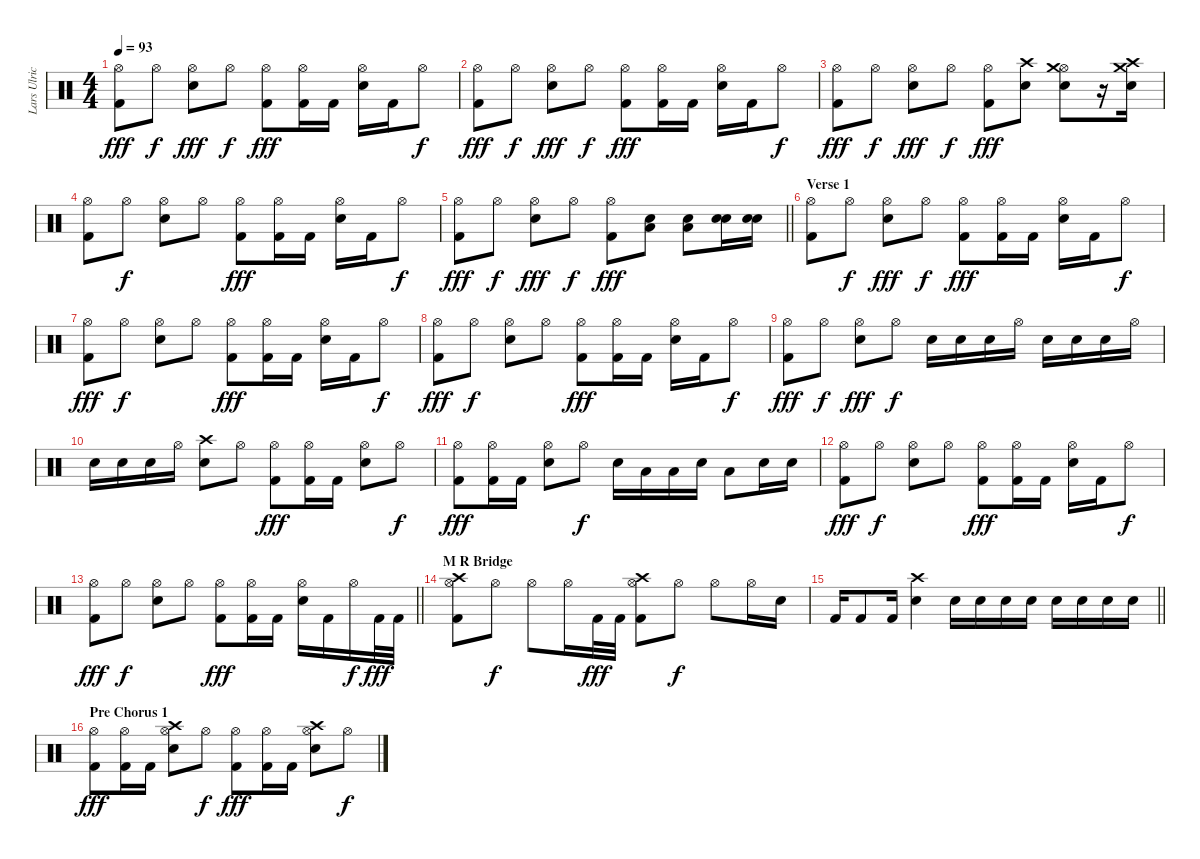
\track ("Lars Ulrich" "Lars Ulric") {instrument percussion}
\staff {score}
\articulation defaults
\ts (4 4)
\tempo 93
\clef neutral
\ks c
("Hi-Hat (open)" "Kick (hit) 2").8{dy fff} "Hi-Hat (open)".8{dy f} ("Hi-Hat (open)" "Snare (hit) 2").8{dy fff} "Hi-Hat (open)".8{dy f} ("Hi-Hat (open)" "Kick (hit) 2").8{dy fff} ("Hi-Hat (open)" "Kick (hit) 2").16 "Kick (hit) 2".16 ("Hi-Hat (open)" "Snare (hit) 2").16 "Kick (hit) 2".16 "Hi-Hat (open)".8{dy f} |
("Hi-Hat (open)" "Kick (hit) 2").8{dy fff} "Hi-Hat (open)".8{dy f} ("Hi-Hat (open)" "Snare (hit) 2").8{dy fff} "Hi-Hat (open)".8{dy f} ("Hi-Hat (open)" "Kick (hit) 2").8{dy fff} ("Hi-Hat (open)" "Kick (hit) 2").16 "Kick (hit) 2".16 ("Hi-Hat (open)" "Snare (hit) 2").16 "Kick (hit) 2".16 "Hi-Hat (open)".8{dy f} |
("Hi-Hat (open)" "Kick (hit) 2").8{dy fff} "Hi-Hat (open)".8{dy f} ("Hi-Hat (open)" "Snare (hit) 2").8{dy fff} "Hi-Hat (open)".8{dy f} ("Hi-Hat (open)" "Kick (hit) 2").8{dy fff} ("Crash high (hit)" "Electric Snare (hit)").8 ("Hi-Hat (open)" "Crash medium (hit)" "Electric Snare (hit)").8 r.16 ("Crash medium (hit)" "Crash high (hit)" "Electric Snare (hit)").16 |
("Hi-Hat (open)" "Kick (hit) 2").8 "Hi-Hat (open)".8{dy f} ("Hi-Hat (open)" "Snare (hit) 2").8 "Hi-Hat (open)".8 ("Hi-Hat (open)" "Kick (hit) 2").8{dy fff} ("Hi-Hat (open)" "Kick (hit) 2").16 "Kick (hit) 2".16 ("Hi-Hat (open)" "Snare (hit) 2").16 "Kick (hit) 2".16 "Hi-Hat (open)".8{dy f} |
\barLineRight lightlight
("Hi-Hat (open)" "Kick (hit) 2").8{dy fff} "Hi-Hat (open)".8{dy f} ("Hi-Hat (open)" "Snare (hit) 2").8{dy fff} "Hi-Hat (open)".8{dy f} ("Hi-Hat (open)" "Kick (hit) 2").8{dy fff} ("Low Floor Tom (hit)" "Electric Snare (hit)").8 ("Low Floor Tom (hit)" "Electric Snare (hit)").8 ("Electric Snare (hit)" "Electric Snare (hit)").16 ("Electric Snare (hit)" "Electric Snare (hit)").16 |
\section ("" "Verse 1")
("Hi-Hat (open)" "Kick (hit) 2").8 "Hi-Hat (open)".8{dy f} ("Hi-Hat (open)" "Snare (hit) 2").8{dy fff} "Hi-Hat (open)".8{dy f} ("Hi-Hat (open)" "Kick (hit) 2").8{dy fff} ("Hi-Hat (open)" "Kick (hit) 2").16 "Kick (hit) 2".16 ("Hi-Hat (open)" "Snare (hit) 2").16 "Kick (hit) 2".16 "Hi-Hat (open)".8{dy f} |
("Hi-Hat (open)" "Kick (hit) 2").8{dy fff} "Hi-Hat (open)".8{dy f} ("Hi-Hat (open)" "Snare (hit) 2").8 "Hi-Hat (open)".8 ("Hi-Hat (open)" "Kick (hit) 2").8{dy fff} ("Hi-Hat (open)" "Kick (hit) 2").16 "Kick (hit) 2".16 ("Hi-Hat (open)" "Snare (hit) 2").16 "Kick (hit) 2".16 "Hi-Hat (open)".8{dy f} |
("Hi-Hat (open)" "Kick (hit) 2").8{dy fff} "Hi-Hat (open)".8{dy f} ("Hi-Hat (open)" "Snare (hit) 2").8 "Hi-Hat (open)".8 ("Hi-Hat (open)" "Kick (hit) 2").8{dy fff} ("Hi-Hat (open)" "Kick (hit) 2").16 "Kick (hit) 2".16 ("Hi-Hat (open)" "Snare (hit) 2").16 "Kick (hit) 2".16 "Hi-Hat (open)".8{dy f} |
("Hi-Hat (open)" "Kick (hit) 2").8{dy fff} "Hi-Hat (open)".8{dy f} ("Hi-Hat (open)" "Snare (hit) 2").8{dy fff} "Hi-Hat (open)".8{dy f} "Snare (hit) 2".16 "Snare (hit) 2".16 "Snare (hit) 2".16 "Hi-Hat (open)".16 "Snare (hit) 2".16 "Snare (hit) 2".16 "Snare (hit) 2".16 "Hi-Hat (open)".16 |
"Snare (hit) 2".16 "Snare (hit) 2".16 "Snare (hit) 2".16 "Hi-Hat (open)".16 ("Crash high (hit)" "Snare (hit) 2").8 "Hi-Hat (open)".8 ("Hi-Hat (open)" "Kick (hit) 2").8{dy fff} ("Hi-Hat (open)" "Kick (hit) 2").16 "Kick (hit) 2".16 ("Hi-Hat (open)" "Snare (hit) 2").8 "Hi-Hat (open)".8{dy f} |
("Hi-Hat (open)" "Kick (hit) 2").8{dy fff} ("Hi-Hat (open)" "Kick (hit) 2").16 "Kick (hit) 2".16 ("Hi-Hat (open)" "Snare (hit) 2").8 "Hi-Hat (open)".8{dy f} "Electric Snare (hit)".16 "Low Tom (hit)".16 "Low Floor Tom (hit)".16 "Electric Snare (hit)".16 "Low Tom (hit)".8 "Electric Snare (hit)".16 "Electric Snare (hit)".16 |
("Hi-Hat (open)" "Kick (hit) 2").8{dy fff} "Hi-Hat (open)".8{dy f} ("Hi-Hat (open)" "Snare (hit) 2").8 "Hi-Hat (open)".8 ("Hi-Hat (open)" "Kick (hit) 2").8{dy fff} ("Hi-Hat (open)" "Kick (hit) 2").16 "Kick (hit) 2".16 ("Hi-Hat (open)" "Snare (hit) 2").16 "Kick (hit) 2".16 "Hi-Hat (open)".8{dy f} |
\barLineRight lightlight
("Hi-Hat (open)" "Kick (hit) 2").8{dy fff} "Hi-Hat (open)".8{dy f} ("Hi-Hat (open)" "Snare (hit) 2").8 "Hi-Hat (open)".8 ("Hi-Hat (open)" "Kick (hit) 2").8{dy fff} ("Hi-Hat (open)" "Kick (hit) 2").16 "Kick (hit) 2".16 ("Hi-Hat (open)" "Snare (hit) 2").16 "Kick (hit) 2".16 "Hi-Hat (open)".16{dy f} "Kick (hit) 2".32{dy fff} "Kick (hit) 2".32 |
\section ("" "M R Bridge")
("Crash high (hit)" "Hi-Hat (open)" "Kick (hit) 2").8 "Hi-Hat (open)".8{dy f} "Hi-Hat (open)".8 "Hi-Hat (open)".16 "Kick (hit) 2".32{dy fff} "Kick (hit) 2".32 ("Crash high (hit)" "Hi-Hat (open)" "Kick (hit) 2").8 "Hi-Hat (open)".8{dy f} "Hi-Hat (open)".8 "Hi-Hat (open)".16 "Electric Snare (hit)".16 |
\barLineRight lightlight "Kick (hit) 2".16 "Kick (hit) 2".8 "Kick (hit) 2".16
("Crash high (hit)" "Electric Snare (hit)").4 "Snare (hit) 2".16 "Snare (hit) 2".16 "Snare (hit) 2".16 "Snare (hit) 2".16 "Snare (hit) 2".16 "Snare (hit) 2".16 "Snare (hit) 2".16 "Snare (hit) 2".16 |
\section ("" "Pre Chorus 1")
("Hi-Hat (open)" "Kick (hit) 2").8{dy fff} ("Hi-Hat (open)" "Kick (hit) 2").16 "Kick (hit) 2".16 ("Crash high (hit)" "Hi-Hat (open)" "Snare (hit) 2").8 "Hi-Hat (open)".8{dy f} ("Hi-Hat (open)" "Kick (hit) 2").8{dy fff} ("Hi-Hat (open)" "Kick (hit) 2").16 "Kick (hit) 2".16 ("Crash high (hit)" "Hi-Hat (open)" "Snare (hit) 2").8 "Hi-Hat (open)".8{dy f}
